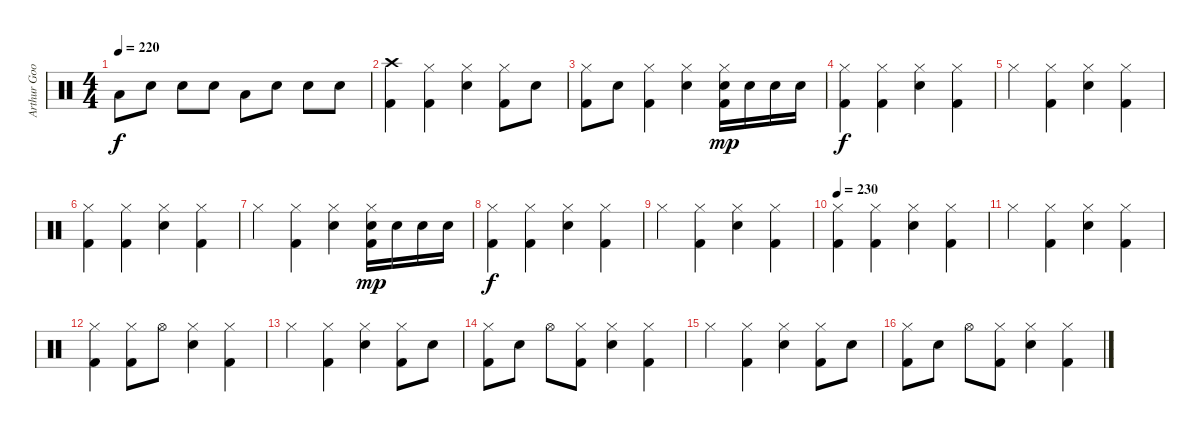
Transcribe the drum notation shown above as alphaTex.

\track ("Arthur Googy" "Arthur Goo") {instrument percussion}
\staff {score}
\articulation defaults
\ts (4 4)
\tempo 220
\clef neutral
\ks c "Low Tom (hit)".8{dy f} "Electric Snare (hit)".8 "Electric Snare (hit)".8 "Electric Snare (hit)".8 "Low Tom (hit)".8 "Electric Snare (hit)".8 "Electric Snare (hit)".8 "Electric Snare (hit)".8
|
("Crash high (hit)" "Kick (hit) 2").4 ("Hi-Hat (closed)" "Kick (hit) 2").4 ("Hi-Hat (closed)" "Electric Snare (hit)").4 ("Hi-Hat (closed)" "Kick (hit) 2").8 "Electric Snare (hit)".8 |
("Hi-Hat (closed)" "Kick (hit) 2").8 "Electric Snare (hit)".8 ("Hi-Hat (closed)" "Kick (hit) 2").4 ("Hi-Hat (closed)" "Electric Snare (hit)").4 ("Hi-Hat (closed)" "Electric Snare (hit)" "Kick (hit) 2").16{dy mp} "Electric Snare (hit)".16 "Electric Snare (hit)".16 "Electric Snare (hit)".16 |
("Hi-Hat (closed)" "Kick (hit) 2").4{dy f} ("Hi-Hat (closed)" "Kick (hit) 2").4 ("Hi-Hat (closed)" "Electric Snare (hit)").4 ("Hi-Hat (closed)" "Kick (hit) 2").4 |
"Hi-Hat (closed)".4 ("Hi-Hat (closed)" "Kick (hit) 2").4 ("Hi-Hat (closed)" "Electric Snare (hit)").4 ("Hi-Hat (closed)" "Kick (hit) 2").4 |
("Hi-Hat (closed)" "Kick (hit) 2").4 ("Hi-Hat (closed)" "Kick (hit) 2").4 ("Hi-Hat (closed)" "Electric Snare (hit)").4 ("Hi-Hat (closed)" "Kick (hit) 2").4 |
"Hi-Hat (closed)".4 ("Hi-Hat (closed)" "Kick (hit) 2").4 ("Hi-Hat (closed)" "Electric Snare (hit)").4 ("Hi-Hat (closed)" "Electric Snare (hit)" "Kick (hit) 2").16{dy mp} "Electric Snare (hit)".16 "Electric Snare (hit)".16 "Electric Snare (hit)".16 |
("Hi-Hat (closed)" "Kick (hit) 2").4{dy f} ("Hi-Hat (closed)" "Kick (hit) 2").4 ("Hi-Hat (closed)" "Electric Snare (hit)").4 ("Hi-Hat (closed)" "Kick (hit) 2").4 |
"Hi-Hat (closed)".4 ("Hi-Hat (closed)" "Kick (hit) 2").4 ("Hi-Hat (closed)" "Electric Snare (hit)").4 ("Hi-Hat (closed)" "Kick (hit) 2").4 |
\tempo 230
("Hi-Hat (closed)" "Kick (hit) 2").4 ("Hi-Hat (closed)" "Kick (hit) 2").4 ("Hi-Hat (closed)" "Electric Snare (hit)").4 ("Hi-Hat (closed)" "Kick (hit) 2").4 |
"Hi-Hat (closed)".4 ("Hi-Hat (closed)" "Kick (hit) 2").4 ("Hi-Hat (closed)" "Electric Snare (hit)").4 ("Hi-Hat (closed)" "Kick (hit) 2").4 |
("Hi-Hat (closed)" "Kick (hit) 2").4 ("Hi-Hat (closed)" "Kick (hit) 2").8 "Hi-Hat (open)".8 ("Hi-Hat (closed)" "Electric Snare (hit)").4 ("Hi-Hat (closed)" "Kick (hit) 2").4 |
"Hi-Hat (closed)".4 ("Hi-Hat (closed)" "Kick (hit) 2").4 ("Hi-Hat (closed)" "Electric Snare (hit)").4 ("Hi-Hat (closed)" "Kick (hit) 2").8 "Electric Snare (hit)".8 |
("Hi-Hat (closed)" "Kick (hit) 2").8 "Electric Snare (hit)".8 "Hi-Hat (open)".8 ("Hi-Hat (closed)" "Kick (hit) 2").8 ("Hi-Hat (closed)" "Electric Snare (hit)").4 ("Hi-Hat (closed)" "Kick (hit) 2").4 |
"Hi-Hat (closed)".4 ("Hi-Hat (closed)" "Kick (hit) 2").4 ("Hi-Hat (closed)" "Electric Snare (hit)").4 ("Hi-Hat (closed)" "Kick (hit) 2").8 "Electric Snare (hit)".8 |
\section ("" "")
("Hi-Hat (closed)" "Kick (hit) 2").8 "Electric Snare (hit)".8 "Hi-Hat (open)".8 ("Hi-Hat (closed)" "Kick (hit) 2").8 ("Hi-Hat (closed)" "Electric Snare (hit)").4 ("Hi-Hat (closed)" "Kick (hit) 2").4
